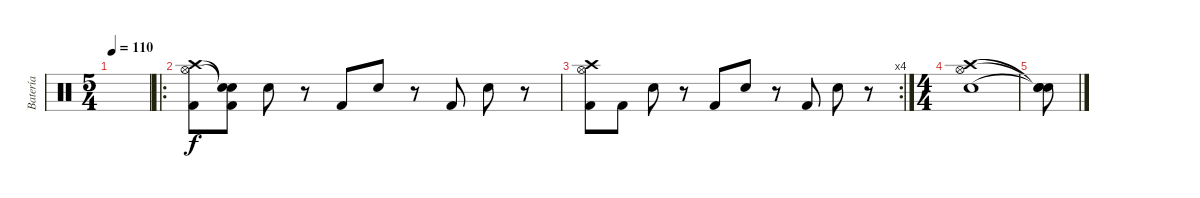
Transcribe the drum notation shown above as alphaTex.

\track ("Batería" "Batería") {instrument percussion}
\staff {score}
\articulation defaults
\ts (5 4)
\tempo 110
\clef neutral
\ks c
|
\ro
("Kick (hit) 2" "Hi-Hat (open)" "Crash high (hit)").8 ("Kick (hit) 2" "Snare (hit)"{t} "Snare (hit)"{t}).8 "Electric Snare (hit)".8 r.8 "Kick (hit) 2".8 "Electric Snare (hit)".8 r.8 "Kick (hit) 2".8 "Electric Snare (hit)".8 r.8 |
\rc 4
("Kick (hit) 2" "Hi-Hat (open)" "Crash high (hit)").8 "Kick (hit) 2".8 "Electric Snare (hit)".8 r.8 "Kick (hit) 2".8 "Electric Snare (hit)".8 r.8 "Kick (hit) 2".8 "Electric Snare (hit)".8 r.8 |
\ts (4 4)
("Electric Snare (hit)" "Hi-Hat (open)" "Crash high (hit)").1 |
("Snare (hit)"{t} "Snare (hit)"{t} "Snare (hit)"{t}).8
